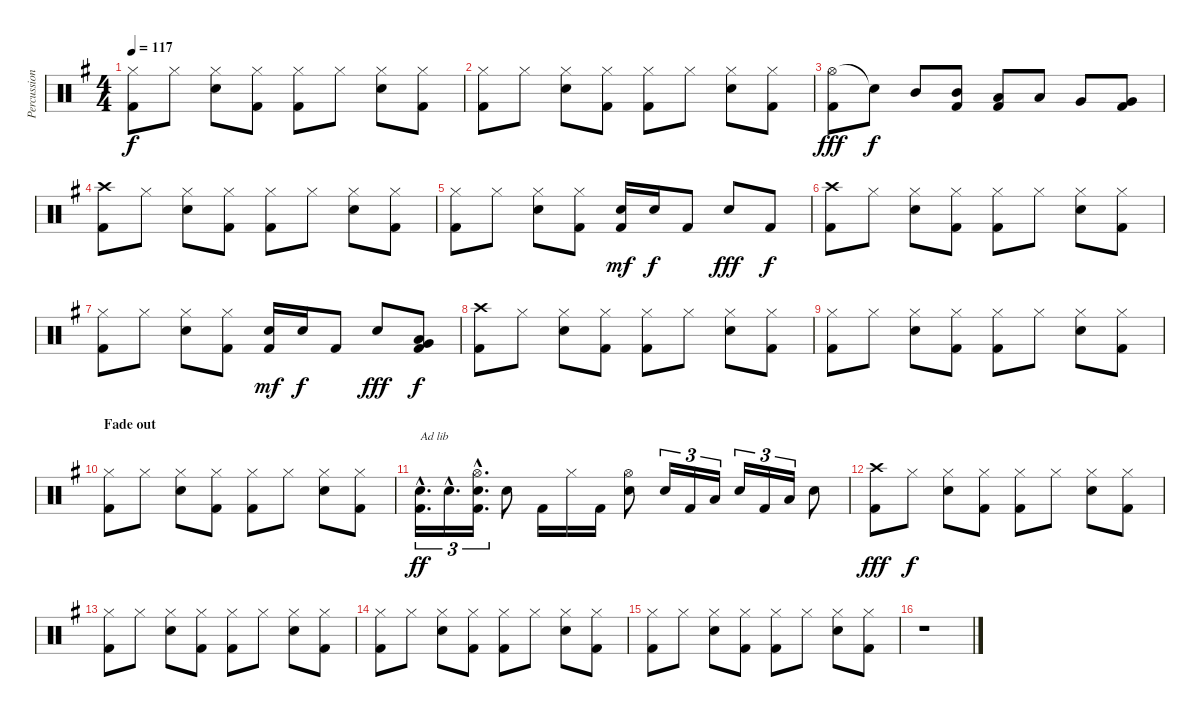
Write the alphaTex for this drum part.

\track ("Percussion" "Percussion") {instrument percussion}
\staff {score}
\articulation defaults
\ts (4 4)
\tempo 117
\clef neutral
\ks g
("Hi-Hat (closed)" "Kick (hit) 2").8{dy f} "Hi-Hat (closed)".8 ("Hi-Hat (closed)" "Electric Snare (hit)").8 ("Hi-Hat (closed)" "Kick (hit) 2").8 ("Hi-Hat (closed)" "Kick (hit) 2").8 "Hi-Hat (closed)".8 ("Hi-Hat (closed)" "Electric Snare (hit)").8 ("Hi-Hat (closed)" "Kick (hit) 2").8 |
("Hi-Hat (closed)" "Kick (hit) 2").8 "Hi-Hat (closed)".8 ("Hi-Hat (closed)" "Electric Snare (hit)").8 ("Hi-Hat (closed)" "Kick (hit) 2").8 ("Hi-Hat (closed)" "Kick (hit) 2").8 "Hi-Hat (closed)".8 ("Hi-Hat (closed)" "Electric Snare (hit)").8 ("Hi-Hat (closed)" "Kick (hit) 2").8 |
("Hi-Hat (open)" "Kick (hit) 2").8{dy fff} "Snare (hit)"{t}.8{dy f} "Mid Tom (hit)".8 ("Mid Tom (hit)" "Kick (hit) 2").8 ("Low Tom (hit)" "Kick (hit) 2").8 "Low Floor Tom (hit)".8 "Very Low Tom (hit)".8 ("Very Low Tom (hit)" "Kick (hit) 2").8 |
("Crash high (hit)" "Kick (hit) 2").8 "Hi-Hat (closed)".8 ("Hi-Hat (closed)" "Electric Snare (hit)").8 ("Hi-Hat (closed)" "Kick (hit) 2").8 ("Hi-Hat (closed)" "Kick (hit) 2").8 "Hi-Hat (closed)".8 ("Hi-Hat (closed)" "Electric Snare (hit)").8 ("Hi-Hat (closed)" "Kick (hit) 2").8 |
("Hi-Hat (closed)" "Kick (hit) 2").8 "Hi-Hat (closed)".8 ("Hi-Hat (closed)" "Electric Snare (hit)").8 ("Hi-Hat (closed)" "Kick (hit) 2").8 ("Electric Snare (hit)" "Kick (hit) 2").16{dy mf} "Electric Snare (hit)".16{dy f} "Kick (hit) 2".8 "Electric Snare (hit)".8{dy fff} "Kick (hit) 2".8{dy f} |
("Crash high (hit)" "Kick (hit) 2").8 "Hi-Hat (closed)".8 ("Hi-Hat (closed)" "Electric Snare (hit)").8 ("Hi-Hat (closed)" "Kick (hit) 2").8 ("Hi-Hat (closed)" "Kick (hit) 2").8 "Hi-Hat (closed)".8 ("Hi-Hat (closed)" "Electric Snare (hit)").8 ("Hi-Hat (closed)" "Kick (hit) 2").8 |
("Hi-Hat (closed)" "Kick (hit) 2").8 "Hi-Hat (closed)".8 ("Hi-Hat (closed)" "Electric Snare (hit)").8 ("Hi-Hat (closed)" "Kick (hit) 2").8 ("Electric Snare (hit)" "Kick (hit) 2").16{dy mf} "Electric Snare (hit)".16{dy f} "Kick (hit) 2".8 "Electric Snare (hit)".8{dy fff} ("Very Low Tom (hit)" "Low Floor Tom (hit)" "Kick (hit) 2").8{dy f} |
("Crash high (hit)" "Kick (hit) 2").8 "Hi-Hat (closed)".8 ("Hi-Hat (closed)" "Electric Snare (hit)").8 ("Hi-Hat (closed)" "Kick (hit) 2").8 ("Hi-Hat (closed)" "Kick (hit) 2").8 "Hi-Hat (closed)".8 ("Hi-Hat (closed)" "Electric Snare (hit)").8 ("Hi-Hat (closed)" "Kick (hit) 2").8 |
("Hi-Hat (closed)" "Kick (hit) 2").8 "Hi-Hat (closed)".8 ("Hi-Hat (closed)" "Electric Snare (hit)").8 ("Hi-Hat (closed)" "Kick (hit) 2").8 ("Hi-Hat (closed)" "Kick (hit) 2").8 "Hi-Hat (closed)".8 ("Hi-Hat (closed)" "Electric Snare (hit)").8 ("Hi-Hat (closed)" "Kick (hit) 2").8 |
\section ("" "Fade out")
("Hi-Hat (closed)" "Kick (hit) 2").8 "Hi-Hat (closed)".8 ("Hi-Hat (closed)" "Electric Snare (hit)").8 ("Hi-Hat (closed)" "Kick (hit) 2").8 ("Hi-Hat (closed)" "Kick (hit) 2").8 "Hi-Hat (closed)".8 ("Hi-Hat (closed)" "Electric Snare (hit)").8 ("Hi-Hat (closed)" "Kick (hit) 2").8 |
("Electric Snare (hit)"{hac} "Kick (hit) 2"{hac}).16{d tu (3 2) txt "Ad lib" dy ff} "Electric Snare (hit)"{hac}.16{d tu (3 2)} ("Hi-Hat (open)"{hac} "Electric Snare (hit)"{hac} "Kick (hit) 2"{hac}).16{d tu (3 2)} "Electric Snare (hit)".8 "Kick (hit) 2".16 "Hi-Hat (closed)".16 "Kick (hit) 2".16 ("Hi-Hat (open)" "Electric Snare (hit)").8 "Electric Snare (hit)".16{tu (3 2)} "Kick (hit) 2".16{tu (3 2)} "Low Tom (hit)".16{tu (3 2)} "Electric Snare (hit)".16{tu (3 2)} "Kick (hit) 2".16{tu (3 2)} "Low Tom (hit)".16{tu (3 2)} "Electric Snare (hit)".8 |
("Crash high (hit)" "Kick (hit) 2").8{dy fff} "Hi-Hat (closed)".8{dy f} ("Hi-Hat (closed)" "Electric Snare (hit)").8 ("Hi-Hat (closed)" "Kick (hit) 2").8 ("Hi-Hat (closed)" "Kick (hit) 2").8 "Hi-Hat (closed)".8 ("Hi-Hat (closed)" "Electric Snare (hit)").8 ("Hi-Hat (closed)" "Kick (hit) 2").8 |
("Hi-Hat (closed)" "Kick (hit) 2").8 "Hi-Hat (closed)".8 ("Hi-Hat (closed)" "Electric Snare (hit)").8 ("Hi-Hat (closed)" "Kick (hit) 2").8 ("Hi-Hat (closed)" "Kick (hit) 2").8 "Hi-Hat (closed)".8 ("Hi-Hat (closed)" "Electric Snare (hit)").8 ("Hi-Hat (closed)" "Kick (hit) 2").8 |
("Hi-Hat (closed)" "Kick (hit) 2").8 "Hi-Hat (closed)".8 ("Hi-Hat (closed)" "Electric Snare (hit)").8 ("Hi-Hat (closed)" "Kick (hit) 2").8 ("Hi-Hat (closed)" "Kick (hit) 2").8 "Hi-Hat (closed)".8 ("Hi-Hat (closed)" "Electric Snare (hit)").8 ("Hi-Hat (closed)" "Kick (hit) 2").8 |
("Hi-Hat (closed)" "Kick (hit) 2").8 "Hi-Hat (closed)".8 ("Hi-Hat (closed)" "Electric Snare (hit)").8 ("Hi-Hat (closed)" "Kick (hit) 2").8 ("Hi-Hat (closed)" "Kick (hit) 2").8 "Hi-Hat (closed)".8 ("Hi-Hat (closed)" "Electric Snare (hit)").8 ("Hi-Hat (closed)" "Kick (hit) 2").8 |
r.1
